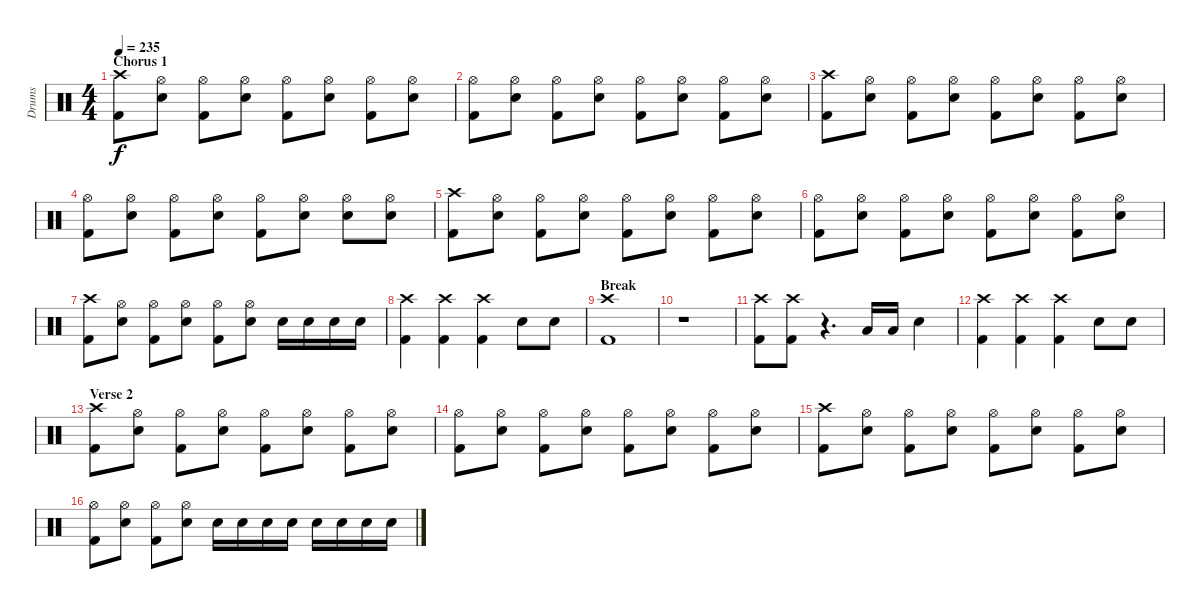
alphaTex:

\track ("Drums" "Drums") {instrument percussion}
\staff {score}
\articulation defaults
\ts (4 4)
\section ("" "Chorus 1")
\tempo 235
\clef neutral
\ks c
("Crash high (hit)" "Kick (hit) 2").8{dy f} ("Hi-Hat (open)" "Electric Snare (hit)").8 ("Hi-Hat (open)" "Kick (hit) 2").8 ("Hi-Hat (open)" "Electric Snare (hit)").8 ("Hi-Hat (open)" "Kick (hit) 2").8 ("Hi-Hat (open)" "Electric Snare (hit)").8 ("Hi-Hat (open)" "Kick (hit) 2").8 ("Hi-Hat (open)" "Electric Snare (hit)").8 |
("Hi-Hat (open)" "Kick (hit) 2").8 ("Hi-Hat (open)" "Electric Snare (hit)").8 ("Hi-Hat (open)" "Kick (hit) 2").8 ("Hi-Hat (open)" "Electric Snare (hit)").8 ("Hi-Hat (open)" "Kick (hit) 2").8 ("Hi-Hat (open)" "Electric Snare (hit)").8 ("Hi-Hat (open)" "Kick (hit) 2").8 ("Hi-Hat (open)" "Electric Snare (hit)").8 |
("Crash high (hit)" "Kick (hit) 2").8 ("Hi-Hat (open)" "Electric Snare (hit)").8 ("Hi-Hat (open)" "Kick (hit) 2").8 ("Hi-Hat (open)" "Electric Snare (hit)").8 ("Hi-Hat (open)" "Kick (hit) 2").8 ("Hi-Hat (open)" "Electric Snare (hit)").8 ("Hi-Hat (open)" "Kick (hit) 2").8 ("Hi-Hat (open)" "Electric Snare (hit)").8 |
("Hi-Hat (open)" "Kick (hit) 2").8 ("Hi-Hat (open)" "Electric Snare (hit)").8 ("Hi-Hat (open)" "Kick (hit) 2").8 ("Hi-Hat (open)" "Electric Snare (hit)").8 ("Hi-Hat (open)" "Kick (hit) 2").8 ("Hi-Hat (open)" "Electric Snare (hit)").8 ("Hi-Hat (open)" "Electric Snare (hit)").8 ("Hi-Hat (open)" "Electric Snare (hit)").8 |
("Crash high (hit)" "Kick (hit) 2").8 ("Hi-Hat (open)" "Electric Snare (hit)").8 ("Hi-Hat (open)" "Kick (hit) 2").8 ("Hi-Hat (open)" "Electric Snare (hit)").8 ("Hi-Hat (open)" "Kick (hit) 2").8 ("Hi-Hat (open)" "Electric Snare (hit)").8 ("Hi-Hat (open)" "Kick (hit) 2").8 ("Hi-Hat (open)" "Electric Snare (hit)").8 |
("Hi-Hat (open)" "Kick (hit) 2").8 ("Hi-Hat (open)" "Electric Snare (hit)").8 ("Hi-Hat (open)" "Kick (hit) 2").8 ("Hi-Hat (open)" "Electric Snare (hit)").8 ("Hi-Hat (open)" "Kick (hit) 2").8 ("Hi-Hat (open)" "Electric Snare (hit)").8 ("Hi-Hat (open)" "Kick (hit) 2").8 ("Hi-Hat (open)" "Electric Snare (hit)").8 |
("Crash high (hit)" "Kick (hit) 2").8 ("Hi-Hat (open)" "Electric Snare (hit)").8 ("Hi-Hat (open)" "Kick (hit) 2").8 ("Hi-Hat (open)" "Electric Snare (hit)").8 ("Hi-Hat (open)" "Kick (hit) 2").8 ("Hi-Hat (open)" "Electric Snare (hit)").8 "Electric Snare (hit)".16 "Electric Snare (hit)".16 "Electric Snare (hit)".16 "Electric Snare (hit)".16 |
("Crash high (hit)" "Kick (hit) 2").4 ("Crash high (hit)" "Kick (hit) 2").4 ("Crash high (hit)" "Kick (hit) 2").4 "Electric Snare (hit)".8 "Electric Snare (hit)".8 |
\section ("" "Break")
("Crash high (hit)" "Kick (hit) 2").1 |
r.1 |
("Crash high (hit)" "Kick (hit) 2").8 ("Crash high (hit)" "Kick (hit) 2").8 r.4{d} "Low Floor Tom (hit)".16 "Low Floor Tom (hit)".16 "Electric Snare (hit)".4 |
("Crash high (hit)" "Kick (hit) 2").4 ("Crash high (hit)" "Kick (hit) 2").4 ("Crash high (hit)" "Kick (hit) 2").4 "Electric Snare (hit)".8 "Electric Snare (hit)".8 |
\section ("" "Verse 2")
("Crash high (hit)" "Kick (hit) 2").8 ("Hi-Hat (open)" "Electric Snare (hit)").8 ("Hi-Hat (open)" "Kick (hit) 2").8 ("Hi-Hat (open)" "Electric Snare (hit)").8 ("Hi-Hat (open)" "Kick (hit) 2").8 ("Hi-Hat (open)" "Electric Snare (hit)").8 ("Hi-Hat (open)" "Kick (hit) 2").8 ("Hi-Hat (open)" "Electric Snare (hit)").8 |
("Hi-Hat (open)" "Kick (hit) 2").8 ("Hi-Hat (open)" "Electric Snare (hit)").8 ("Hi-Hat (open)" "Kick (hit) 2").8 ("Hi-Hat (open)" "Electric Snare (hit)").8 ("Hi-Hat (open)" "Kick (hit) 2").8 ("Hi-Hat (open)" "Electric Snare (hit)").8 ("Hi-Hat (open)" "Kick (hit) 2").8 ("Hi-Hat (open)" "Electric Snare (hit)").8 |
("Crash high (hit)" "Kick (hit) 2").8 ("Hi-Hat (open)" "Electric Snare (hit)").8 ("Hi-Hat (open)" "Kick (hit) 2").8 ("Hi-Hat (open)" "Electric Snare (hit)").8 ("Hi-Hat (open)" "Kick (hit) 2").8 ("Hi-Hat (open)" "Electric Snare (hit)").8 ("Hi-Hat (open)" "Kick (hit) 2").8 ("Hi-Hat (open)" "Electric Snare (hit)").8 |
("Hi-Hat (open)" "Kick (hit) 2").8 ("Hi-Hat (open)" "Electric Snare (hit)").8 ("Hi-Hat (open)" "Kick (hit) 2").8 ("Hi-Hat (open)" "Electric Snare (hit)").8 "Electric Snare (hit)".16 "Electric Snare (hit)".16 "Electric Snare (hit)".16 "Electric Snare (hit)".16 "Electric Snare (hit)".16 "Electric Snare (hit)".16 "Electric Snare (hit)".16 "Electric Snare (hit)".16
